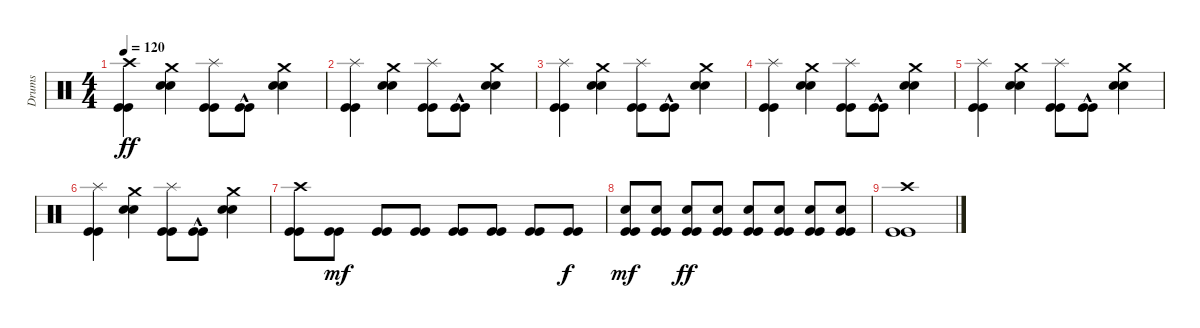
\track ("Drums" "Drums") {instrument percussion}
\staff {score}
\articulation defaults
\ts (4 4)
\tempo 120
\clef neutral
\ks c
("Kick (hit)" "Kick (hit)" "Crash high (hit)").4{dy ff} ("Snare (hit) 2" "Snare (hit) 2" "Crash medium (hit)").4 ("Kick (hit)" "Kick (hit)" "Splash (hit)").8 ("Kick (hit)"{hac} "Kick (hit)"{hac}).8 ("Snare (hit) 2" "Snare (hit) 2" "Crash medium (hit)").4 |
("Kick (hit)" "Kick (hit)" "Splash (hit)").4 ("Snare (hit) 2" "Snare (hit) 2" "Crash medium (hit)").4 ("Kick (hit)" "Kick (hit)" "Splash (hit)").8 ("Kick (hit)"{hac} "Kick (hit)"{hac}).8 ("Snare (hit) 2" "Snare (hit) 2" "Crash medium (hit)").4 |
("Kick (hit)" "Kick (hit)" "Splash (hit)").4 ("Snare (hit) 2" "Snare (hit) 2" "Crash medium (hit)").4 ("Kick (hit)" "Kick (hit)" "Splash (hit)").8 ("Kick (hit)"{hac} "Kick (hit)"{hac}).8 ("Snare (hit) 2" "Snare (hit) 2" "Crash medium (hit)").4 |
("Kick (hit)" "Kick (hit)" "Splash (hit)").4 ("Snare (hit) 2" "Snare (hit) 2" "Crash medium (hit)").4 ("Kick (hit)" "Kick (hit)" "Splash (hit)").8 ("Kick (hit)"{hac} "Kick (hit)"{hac}).8 ("Snare (hit) 2" "Snare (hit) 2" "Crash medium (hit)").4 |
("Kick (hit)" "Kick (hit)" "Splash (hit)").4 ("Snare (hit) 2" "Snare (hit) 2" "Crash medium (hit)").4 ("Kick (hit)" "Kick (hit)" "Splash (hit)").8 ("Kick (hit)"{hac} "Kick (hit)"{hac}).8 ("Snare (hit) 2" "Snare (hit) 2" "Crash medium (hit)").4 |
("Kick (hit)" "Kick (hit)" "Splash (hit)").4 ("Snare (hit) 2" "Snare (hit) 2" "Crash medium (hit)").4 ("Kick (hit)" "Kick (hit)" "Splash (hit)").8 ("Kick (hit)"{hac} "Kick (hit)"{hac}).8 ("Snare (hit) 2" "Snare (hit) 2" "Crash medium (hit)").4 |
("Kick (hit)" "Kick (hit)" "Crash high (hit)").8 ("Kick (hit)" "Kick (hit)").8{dy mf} ("Kick (hit)" "Kick (hit)").8 ("Kick (hit)" "Kick (hit)").8 ("Kick (hit)" "Kick (hit)").8 ("Kick (hit)" "Kick (hit)").8 ("Kick (hit)" "Kick (hit)").8 ("Kick (hit)" "Kick (hit)").8{dy f} |
("Kick (hit)" "Kick (hit)" "Snare (hit) 2").8{dy mf} ("Kick (hit)" "Kick (hit)" "Snare (hit) 2").8 ("Kick (hit)" "Kick (hit)" "Snare (hit) 2").8{dy ff} ("Kick (hit)" "Kick (hit)" "Snare (hit) 2").8 ("Kick (hit)" "Kick (hit)" "Snare (hit) 2").8 ("Kick (hit)" "Kick (hit)" "Snare (hit) 2").8 ("Kick (hit)" "Kick (hit)" "Snare (hit) 2").8 ("Kick (hit)" "Kick (hit)" "Snare (hit) 2").8 |
("Kick (hit)" "Kick (hit)" "Crash high (hit)").1
